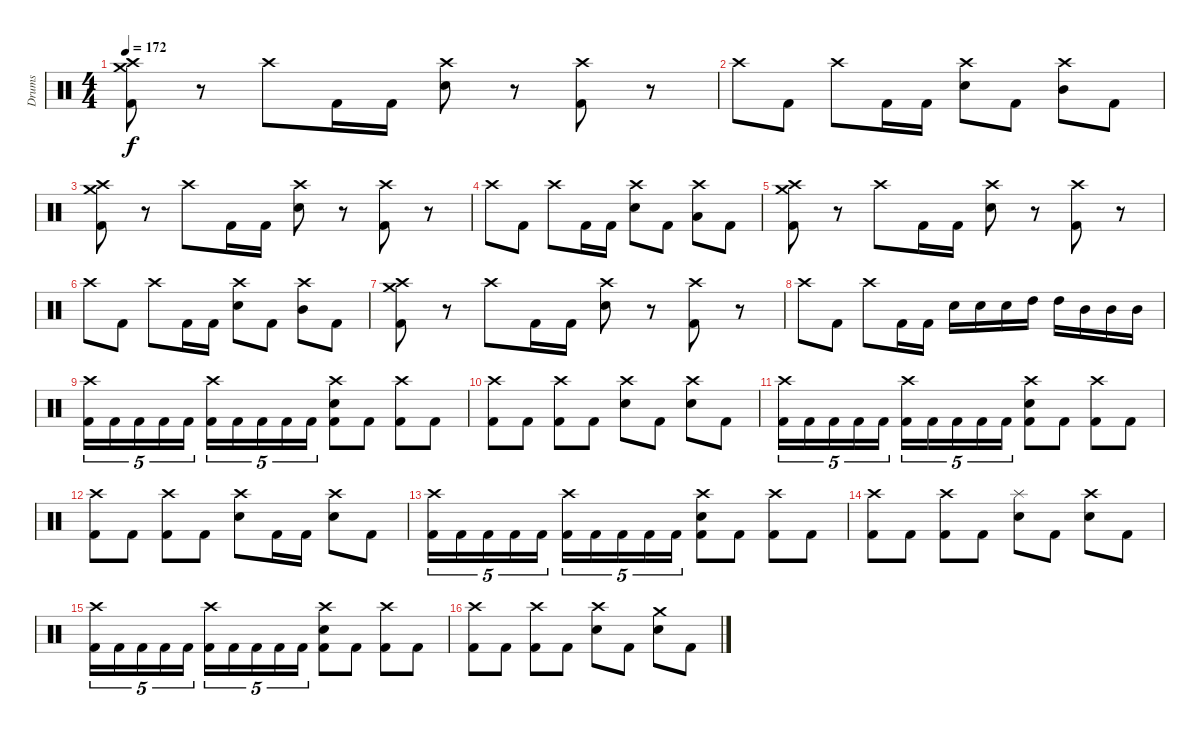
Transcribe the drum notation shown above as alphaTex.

\track ("Drums" "Drums") {instrument percussion}
\staff {score}
\articulation defaults
\ts (4 4)
\tempo 172
\clef neutral
\ks c
("Crash medium (hit)" "Crash high (hit)" "Kick (hit) 2").8{dy f} r.8 "Crash high (hit)".8 "Kick (hit) 2".16 "Kick (hit) 2".16 ("Crash high (hit)" "Snare (hit) 2").8 r.8 ("Crash high (hit)" "Kick (hit) 2").8 r.8 |
"Crash high (hit)".8 "Kick (hit) 2".8 "Crash high (hit)".8 "Kick (hit) 2".16 "Kick (hit) 2".16 ("Crash high (hit)" "Snare (hit) 2").8 "Kick (hit) 2".8 ("Crash high (hit)" "Mid Tom (hit)").8 "Kick (hit) 2".8 |
("Crash medium (hit)" "Crash high (hit)" "Kick (hit) 2").8 r.8 "Crash high (hit)".8 "Kick (hit) 2".16 "Kick (hit) 2".16 ("Crash high (hit)" "Snare (hit) 2").8 r.8 ("Crash high (hit)" "Kick (hit) 2").8 r.8 |
"Crash high (hit)".8 "Kick (hit) 2".8 "Crash high (hit)".8 "Kick (hit) 2".16 "Kick (hit) 2".16 ("Crash high (hit)" "Snare (hit) 2").8 "Kick (hit) 2".8 ("Crash high (hit)" "Low Tom (hit)").8 "Kick (hit) 2".8 |
("Crash medium (hit)" "Crash high (hit)" "Kick (hit) 2").8 r.8 "Crash high (hit)".8 "Kick (hit) 2".16 "Kick (hit) 2".16 ("Crash high (hit)" "Snare (hit) 2").8 r.8 ("Crash high (hit)" "Kick (hit) 2").8 r.8 |
"Crash high (hit)".8 "Kick (hit) 2".8 "Crash high (hit)".8 "Kick (hit) 2".16 "Kick (hit) 2".16 ("Crash high (hit)" "Snare (hit) 2").8 "Kick (hit) 2".8 ("Crash high (hit)" "Mid Tom (hit)").8 "Kick (hit) 2".8 |
("Crash medium (hit)" "Crash high (hit)" "Kick (hit) 2").8 r.8 "Crash high (hit)".8 "Kick (hit) 2".16 "Kick (hit) 2".16 ("Crash high (hit)" "Snare (hit) 2").8 r.8 ("Crash high (hit)" "Kick (hit) 2").8 r.8 |
"Crash high (hit)".8 "Kick (hit) 2".8 "Crash high (hit)".8 "Kick (hit) 2".16 "Kick (hit) 2".16 "Snare (hit) 2".16 "Snare (hit) 2".16 "Snare (hit) 2".16 "High Tom (hit)".16 "High Tom (hit)".16 "Mid Tom (hit)".16 "Mid Tom (hit)".16 "Mid Tom (hit)".16 |
("Crash high (hit)" "Kick (hit) 2").16{tu (5 4)} "Kick (hit) 2".16{tu (5 4)} "Kick (hit) 2".16{tu (5 4)} "Kick (hit) 2".16{tu (5 4)} "Kick (hit) 2".16{tu (5 4)} ("Crash high (hit)" "Kick (hit) 2").16{tu (5 4)} "Kick (hit) 2".16{tu (5 4)} "Kick (hit) 2".16{tu (5 4)} "Kick (hit) 2".16{tu (5 4)} "Kick (hit) 2".16{tu (5 4)} ("Crash high (hit)" "Snare (hit) 2" "Kick (hit) 2").8 "Kick (hit) 2".8 ("Crash high (hit)" "Kick (hit) 2").8 "Kick (hit) 2".8 |
("Crash high (hit)" "Kick (hit) 2").8 "Kick (hit) 2".8 ("Crash high (hit)" "Kick (hit) 2").8 "Kick (hit) 2".8 ("Crash high (hit)" "Snare (hit) 2").8 "Kick (hit) 2".8 ("Crash high (hit)" "Snare (hit) 2").8 "Kick (hit) 2".8 |
("Crash high (hit)" "Kick (hit) 2").16{tu (5 4)} "Kick (hit) 2".16{tu (5 4)} "Kick (hit) 2".16{tu (5 4)} "Kick (hit) 2".16{tu (5 4)} "Kick (hit) 2".16{tu (5 4)} ("Crash high (hit)" "Kick (hit) 2").16{tu (5 4)} "Kick (hit) 2".16{tu (5 4)} "Kick (hit) 2".16{tu (5 4)} "Kick (hit) 2".16{tu (5 4)} "Kick (hit) 2".16{tu (5 4)} ("Crash high (hit)" "Snare (hit) 2" "Kick (hit) 2").8 "Kick (hit) 2".8 ("Crash high (hit)" "Kick (hit) 2").8 "Kick (hit) 2".8 |
("Crash high (hit)" "Kick (hit) 2").8 "Kick (hit) 2".8 ("Crash high (hit)" "Kick (hit) 2").8 "Kick (hit) 2".8 ("Crash high (hit)" "Snare (hit) 2").8 "Kick (hit) 2".16 "Kick (hit) 2".16 ("Crash high (hit)" "Snare (hit) 2").8 "Kick (hit) 2".8 |
("Crash high (hit)" "Kick (hit) 2").16{tu (5 4)} "Kick (hit) 2".16{tu (5 4)} "Kick (hit) 2".16{tu (5 4)} "Kick (hit) 2".16{tu (5 4)} "Kick (hit) 2".16{tu (5 4)} ("Crash high (hit)" "Kick (hit) 2").16{tu (5 4)} "Kick (hit) 2".16{tu (5 4)} "Kick (hit) 2".16{tu (5 4)} "Kick (hit) 2".16{tu (5 4)} "Kick (hit) 2".16{tu (5 4)} ("Crash high (hit)" "Snare (hit) 2" "Kick (hit) 2").8 "Kick (hit) 2".8 ("Crash high (hit)" "Kick (hit) 2").8 "Kick (hit) 2".8 |
("Crash high (hit)" "Kick (hit) 2").8 "Kick (hit) 2".8 ("Crash high (hit)" "Kick (hit) 2").8 "Kick (hit) 2".8 ("Splash (hit)" "Snare (hit) 2").8 "Kick (hit) 2".8 ("Crash high (hit)" "Snare (hit) 2").8 "Kick (hit) 2".8 |
("Crash high (hit)" "Kick (hit) 2").16{tu (5 4)} "Kick (hit) 2".16{tu (5 4)} "Kick (hit) 2".16{tu (5 4)} "Kick (hit) 2".16{tu (5 4)} "Kick (hit) 2".16{tu (5 4)} ("Crash high (hit)" "Kick (hit) 2").16{tu (5 4)} "Kick (hit) 2".16{tu (5 4)} "Kick (hit) 2".16{tu (5 4)} "Kick (hit) 2".16{tu (5 4)} "Kick (hit) 2".16{tu (5 4)} ("Crash high (hit)" "Snare (hit) 2" "Kick (hit) 2").8 "Kick (hit) 2".8 ("Crash high (hit)" "Kick (hit) 2").8 "Kick (hit) 2".8 |
("Crash high (hit)" "Kick (hit) 2").8 "Kick (hit) 2".8 ("Crash high (hit)" "Kick (hit) 2").8 "Kick (hit) 2".8 ("Crash high (hit)" "Snare (hit) 2").8 "Kick (hit) 2".8 ("Crash medium (hit)" "Snare (hit) 2").8 "Kick (hit) 2".8
